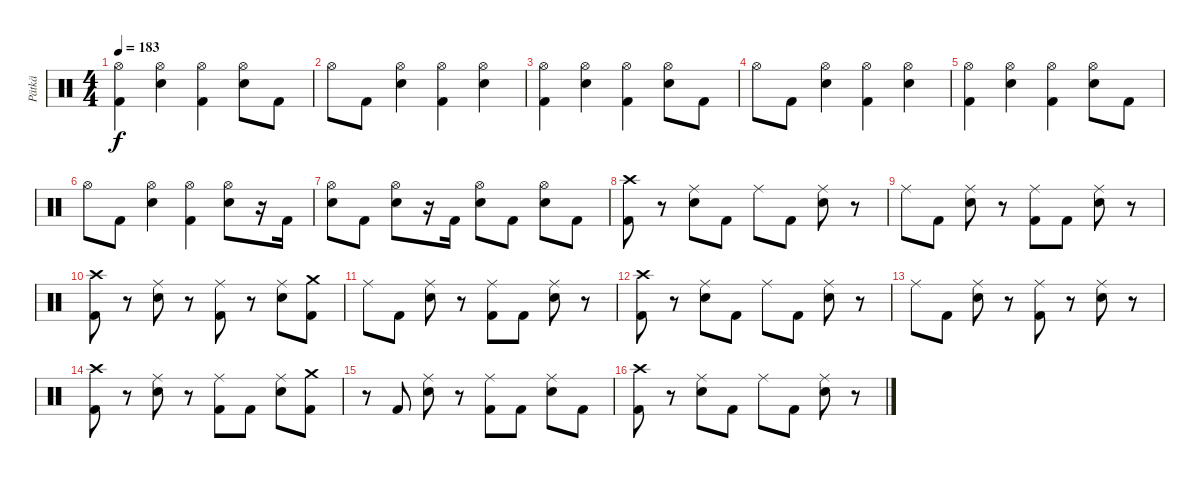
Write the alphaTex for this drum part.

\track ("Pätkä" "Pätkä") {instrument percussion}
\staff {score}
\articulation defaults
\ts (4 4)
\tempo 183
\clef neutral
\ks c
("Hi-Hat (open)" "Kick (hit) 2").4{dy f} ("Hi-Hat (open)" "Electric Snare (hit)").4 ("Hi-Hat (open)" "Kick (hit) 2").4 ("Hi-Hat (open)" "Electric Snare (hit)").8 "Kick (hit) 2".8 |
"Hi-Hat (open)".8 "Kick (hit) 2".8 ("Hi-Hat (open)" "Electric Snare (hit)").4 ("Hi-Hat (open)" "Kick (hit) 2").4 ("Hi-Hat (open)" "Electric Snare (hit)").4 |
("Hi-Hat (open)" "Kick (hit) 2").4 ("Hi-Hat (open)" "Electric Snare (hit)").4 ("Hi-Hat (open)" "Kick (hit) 2").4 ("Hi-Hat (open)" "Electric Snare (hit)").8 "Kick (hit) 2".8 |
"Hi-Hat (open)".8 "Kick (hit) 2".8 ("Hi-Hat (open)" "Electric Snare (hit)").4 ("Hi-Hat (open)" "Kick (hit) 2").4 ("Hi-Hat (open)" "Electric Snare (hit)").4 |
("Hi-Hat (open)" "Kick (hit) 2").4 ("Hi-Hat (open)" "Electric Snare (hit)").4 ("Hi-Hat (open)" "Kick (hit) 2").4 ("Hi-Hat (open)" "Electric Snare (hit)").8 "Kick (hit) 2".8 |
"Hi-Hat (open)".8 "Kick (hit) 2".8 ("Hi-Hat (open)" "Electric Snare (hit)").4 ("Hi-Hat (open)" "Kick (hit) 2").4 ("Hi-Hat (open)" "Electric Snare (hit)").8 r.16 "Kick (hit) 2".16 |
("Hi-Hat (open)" "Electric Snare (hit)").8 "Kick (hit) 2".8 ("Hi-Hat (open)" "Electric Snare (hit)").8 r.16 "Kick (hit) 2".16 ("Hi-Hat (open)" "Electric Snare (hit)").8 "Kick (hit) 2".8 ("Hi-Hat (open)" "Electric Snare (hit)").8 "Kick (hit) 2".8 |
("Crash high (hit)" "Kick (hit) 2").8 r.8 ("Ride (middle)" "Electric Snare (hit)").8 "Kick (hit) 2".8 "Ride (middle)".8 "Kick (hit) 2".8 ("Ride (middle)" "Electric Snare (hit)").8 r.8 |
"Ride (middle)".8 "Kick (hit) 2".8 ("Ride (middle)" "Electric Snare (hit)").8 r.8 ("Ride (middle)" "Kick (hit) 2").8 "Kick (hit) 2".8 ("Ride (middle)" "Electric Snare (hit)").8 r.8 |
("Crash high (hit)" "Kick (hit) 2").8 r.8 ("Ride (middle)" "Electric Snare (hit)").8 r.8 ("Ride (middle)" "Kick (hit) 2").8 r.8 ("Ride (middle)" "Electric Snare (hit)").8 ("Crash medium (hit)" "Kick (hit) 2").8 |
"Ride (middle)".8 "Kick (hit) 2".8 ("Ride (middle)" "Electric Snare (hit)").8 r.8 ("Ride (middle)" "Kick (hit) 2").8 "Kick (hit) 2".8 ("Ride (middle)" "Electric Snare (hit)").8 r.8 |
("Crash high (hit)" "Kick (hit) 2").8 r.8 ("Ride (middle)" "Electric Snare (hit)").8 "Kick (hit) 2".8 "Ride (middle)".8 "Kick (hit) 2".8 ("Ride (middle)" "Electric Snare (hit)").8 r.8 |
"Ride (middle)".8 "Kick (hit) 2".8 ("Ride (middle)" "Electric Snare (hit)").8 r.8 ("Ride (middle)" "Kick (hit) 2").8 r.8 ("Ride (middle)" "Electric Snare (hit)").8 r.8 |
("Crash high (hit)" "Kick (hit) 2").8 r.8 ("Ride (middle)" "Electric Snare (hit)").8 r.8 ("Ride (middle)" "Kick (hit) 2").8 "Kick (hit) 2".8 ("Ride (middle)" "Electric Snare (hit)").8 ("Crash medium (hit)" "Kick (hit) 2").8 |
r.8 "Kick (hit) 2".8 ("Ride (middle)" "Electric Snare (hit)").8 r.8 ("Ride (middle)" "Kick (hit) 2").8 "Kick (hit) 2".8 ("Ride (middle)" "Electric Snare (hit)").8 "Kick (hit) 2".8 |
("Crash high (hit)" "Kick (hit) 2").8 r.8 ("Ride (middle)" "Electric Snare (hit)").8 "Kick (hit) 2".8 "Ride (middle)".8 "Kick (hit) 2".8 ("Ride (middle)" "Electric Snare (hit)").8 r.8
